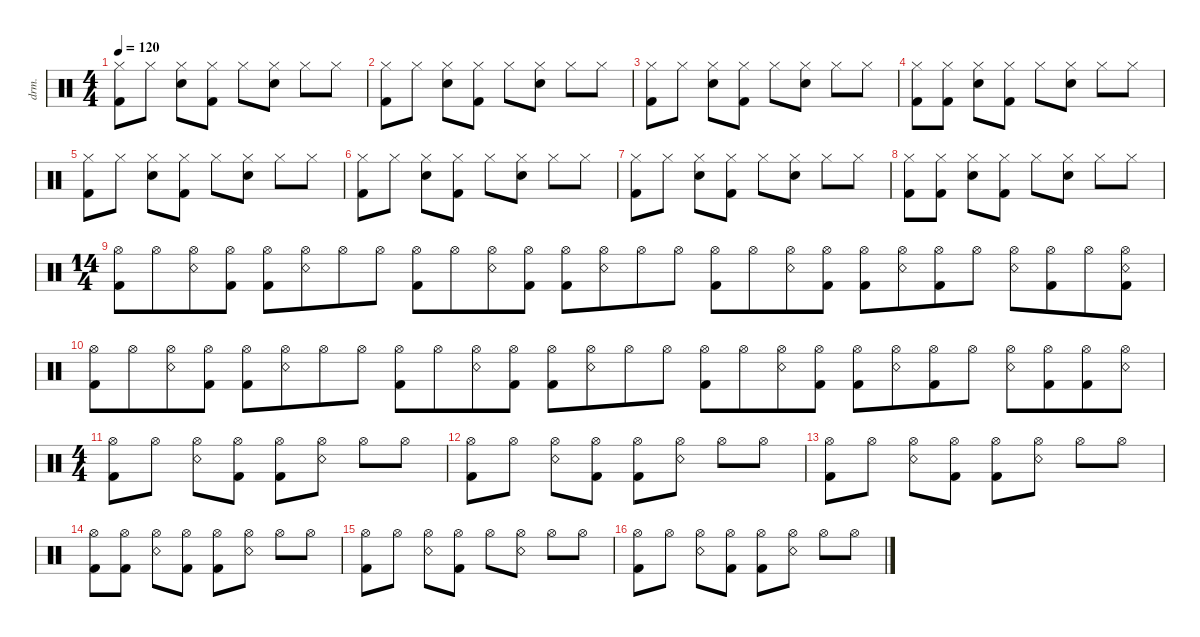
\defaultSystemsLayout 4
\hideDynamics
\bracketExtendMode nobrackets
\otherSystemsTrackNameOrientation horizontal
\track ("Drumkit" "drm.") {instrument percussion}
\staff {score}
\articulation defaults
\ts (4 4)
\tempo 120
\clef neutral
\ks c
("Hi-Hat (closed)" "Kick (hit) 2").8{dy mf beam Down} "Hi-Hat (closed)".8{beam Down} ("Hi-Hat (closed)" "Snare (hit) 2").8{beam Down} ("Hi-Hat (closed)" "Kick (hit) 2").8{beam Down} "Hi-Hat (closed)".8{beam Down} ("Hi-Hat (closed)" "Snare (hit) 2").8{beam Down} "Hi-Hat (closed)".8{beam Down} "Hi-Hat (closed)".8{beam Down} |
("Hi-Hat (closed)" "Kick (hit) 2").8{beam Down} "Hi-Hat (closed)".8{beam Down} ("Hi-Hat (closed)" "Snare (hit) 2").8{beam Down} ("Hi-Hat (closed)" "Kick (hit) 2").8{beam Down} "Hi-Hat (closed)".8{beam Down} ("Hi-Hat (closed)" "Snare (hit) 2").8{beam Down} "Hi-Hat (closed)".8{beam Down} "Hi-Hat (closed)".8{beam Down} |
("Hi-Hat (closed)" "Kick (hit) 2").8{beam Down} "Hi-Hat (closed)".8{beam Down} ("Hi-Hat (closed)" "Snare (hit) 2").8{beam Down} ("Hi-Hat (closed)" "Kick (hit) 2").8{beam Down} "Hi-Hat (closed)".8{beam Down} ("Hi-Hat (closed)" "Snare (hit) 2").8{beam Down} "Hi-Hat (closed)".8{beam Down} "Hi-Hat (closed)".8{beam Down} |
("Hi-Hat (closed)" "Kick (hit) 2").8{beam Down} ("Hi-Hat (closed)" "Kick (hit) 2").8{beam Down} ("Hi-Hat (closed)" "Snare (hit) 2").8{beam Down} ("Hi-Hat (closed)" "Kick (hit) 2").8{beam Down} "Hi-Hat (closed)".8{beam Down} ("Hi-Hat (closed)" "Snare (hit) 2").8{beam Down} "Hi-Hat (closed)".8{beam Down} "Hi-Hat (closed)".8{beam Down} |
("Hi-Hat (closed)" "Kick (hit) 2").8{beam Down} "Hi-Hat (closed)".8{beam Down} ("Hi-Hat (closed)" "Snare (hit) 2").8{beam Down} ("Hi-Hat (closed)" "Kick (hit) 2").8{beam Down} "Hi-Hat (closed)".8{beam Down} ("Hi-Hat (closed)" "Snare (hit) 2").8{beam Down} "Hi-Hat (closed)".8{beam Down} "Hi-Hat (closed)".8{beam Down} |
("Hi-Hat (closed)" "Kick (hit) 2").8{beam Down} "Hi-Hat (closed)".8{beam Down} ("Hi-Hat (closed)" "Snare (hit) 2").8{beam Down} ("Hi-Hat (closed)" "Kick (hit) 2").8{beam Down} "Hi-Hat (closed)".8{beam Down} ("Hi-Hat (closed)" "Snare (hit) 2").8{beam Down} "Hi-Hat (closed)".8{beam Down} "Hi-Hat (closed)".8{beam Down} |
("Hi-Hat (closed)" "Kick (hit) 2").8{beam Down} "Hi-Hat (closed)".8{beam Down} ("Hi-Hat (closed)" "Snare (hit) 2").8{beam Down} ("Hi-Hat (closed)" "Kick (hit) 2").8{beam Down} "Hi-Hat (closed)".8{beam Down} ("Hi-Hat (closed)" "Snare (hit) 2").8{beam Down} "Hi-Hat (closed)".8{beam Down} "Hi-Hat (closed)".8{beam Down} |
("Hi-Hat (closed)" "Kick (hit) 2").8{beam Down} ("Hi-Hat (closed)" "Kick (hit) 2").8{beam Down} ("Hi-Hat (closed)" "Snare (hit) 2").8{beam Down} ("Hi-Hat (closed)" "Kick (hit) 2").8{beam Down} "Hi-Hat (closed)".8{beam Down} ("Hi-Hat (closed)" "Snare (hit) 2").8{beam Down} "Hi-Hat (closed)".8{beam Down} "Hi-Hat (closed)".8{beam Down} |
\ts (14 4)
\beaming (8 4 4 4 4 4 4 4)
("Kick (hit) 2" "Hi-Hat (open)").8{beam Down} "Hi-Hat (open)".8{beam Down} ("Hi-Hat (open)" "Snare (rim shot)").8{beam Down} ("Hi-Hat (open)" "Kick (hit) 2").8{beam Down} ("Hi-Hat (open)" "Kick (hit) 2").8{beam Down} ("Hi-Hat (open)" "Snare (rim shot)").8{beam Down} "Hi-Hat (open)".8{beam Down} "Hi-Hat (open)".8{beam Down} ("Kick (hit) 2" "Hi-Hat (open)").8{beam Down} "Hi-Hat (open)".8{beam Down} ("Hi-Hat (open)" "Snare (rim shot)").8{beam Down} ("Hi-Hat (open)" "Kick (hit) 2").8{beam Down} ("Hi-Hat (open)" "Kick (hit) 2").8{beam Down} ("Hi-Hat (open)" "Snare (rim shot)").8{beam Down} "Hi-Hat (open)".8{beam Down} "Hi-Hat (open)".8{beam Down} ("Kick (hit) 2" "Hi-Hat (open)").8{beam Down} "Hi-Hat (open)".8{beam Down} ("Hi-Hat (open)" "Snare (rim shot)").8{beam Down} ("Hi-Hat (open)" "Kick (hit) 2").8{beam Down} ("Hi-Hat (open)" "Kick (hit) 2").8{beam Down} ("Hi-Hat (open)" "Snare (rim shot)").8{beam Down} ("Hi-Hat (open)" "Kick (hit) 2").8{beam Down} "Hi-Hat (open)".8{beam Down} ("Hi-Hat (open)" "Snare (rim shot)").8{beam Down} ("Hi-Hat (open)" "Kick (hit) 2").8{beam Down} "Hi-Hat (open)".8{beam Down} ("Hi-Hat (open)" "Kick (hit) 2" "Snare (rim shot)").8{beam Down} |
("Kick (hit) 2" "Hi-Hat (open)").8{beam Down} "Hi-Hat (open)".8{beam Down} ("Hi-Hat (open)" "Snare (rim shot)").8{beam Down} ("Hi-Hat (open)" "Kick (hit) 2").8{beam Down} ("Hi-Hat (open)" "Kick (hit) 2").8{beam Down} ("Hi-Hat (open)" "Snare (rim shot)").8{beam Down} "Hi-Hat (open)".8{beam Down} "Hi-Hat (open)".8{beam Down} ("Kick (hit) 2" "Hi-Hat (open)").8{beam Down} "Hi-Hat (open)".8{beam Down} ("Hi-Hat (open)" "Snare (rim shot)").8{beam Down} ("Hi-Hat (open)" "Kick (hit) 2").8{beam Down} ("Hi-Hat (open)" "Kick (hit) 2").8{beam Down} ("Hi-Hat (open)" "Snare (rim shot)").8{beam Down} "Hi-Hat (open)".8{beam Down} "Hi-Hat (open)".8{beam Down} ("Kick (hit) 2" "Hi-Hat (open)").8{beam Down} "Hi-Hat (open)".8{beam Down} ("Hi-Hat (open)" "Snare (rim shot)").8{beam Down} ("Hi-Hat (open)" "Kick (hit) 2").8{beam Down} ("Hi-Hat (open)" "Kick (hit) 2").8{beam Down} ("Hi-Hat (open)" "Snare (rim shot)").8{beam Down} ("Hi-Hat (open)" "Kick (hit) 2").8{beam Down} "Hi-Hat (open)".8{beam Down} ("Hi-Hat (open)" "Snare (rim shot)").8{beam Down} ("Hi-Hat (open)" "Kick (hit) 2").8{beam Down} ("Hi-Hat (open)" "Kick (hit) 2").8{beam Down} ("Hi-Hat (open)" "Snare (rim shot)").8{beam Down} |
\ts (4 4)
\beaming (8 2 2 2 2)
("Kick (hit) 2" "Hi-Hat (open)").8{beam Down} "Hi-Hat (open)".8{beam Down} ("Hi-Hat (open)" "Snare (rim shot)").8{beam Down} ("Hi-Hat (open)" "Kick (hit) 2").8{beam Down} ("Hi-Hat (open)" "Kick (hit) 2").8{beam Down} ("Hi-Hat (open)" "Snare (rim shot)").8{beam Down} "Hi-Hat (open)".8{beam Down} "Hi-Hat (open)".8{beam Down} |
("Kick (hit) 2" "Hi-Hat (open)").8{beam Down} "Hi-Hat (open)".8{beam Down} ("Hi-Hat (open)" "Snare (rim shot)").8{beam Down} ("Hi-Hat (open)" "Kick (hit) 2").8{beam Down} ("Hi-Hat (open)" "Kick (hit) 2").8{beam Down} ("Hi-Hat (open)" "Snare (rim shot)").8{beam Down} "Hi-Hat (open)".8{beam Down} "Hi-Hat (open)".8{beam Down} |
("Kick (hit) 2" "Hi-Hat (open)").8{beam Down} "Hi-Hat (open)".8{beam Down} ("Hi-Hat (open)" "Snare (rim shot)").8{beam Down} ("Hi-Hat (open)" "Kick (hit) 2").8{beam Down} ("Hi-Hat (open)" "Kick (hit) 2").8{beam Down} ("Hi-Hat (open)" "Snare (rim shot)").8{beam Down} "Hi-Hat (open)".8{beam Down} "Hi-Hat (open)".8{beam Down} |
("Kick (hit) 2" "Hi-Hat (open)").8{beam Down} ("Hi-Hat (open)" "Kick (hit) 2").8{beam Down} ("Hi-Hat (open)" "Snare (rim shot)").8{beam Down} ("Hi-Hat (open)" "Kick (hit) 2").8{beam Down} ("Hi-Hat (open)" "Kick (hit) 2").8{beam Down} ("Hi-Hat (open)" "Snare (rim shot)").8{beam Down} "Hi-Hat (open)".8{beam Down} "Hi-Hat (open)".8{beam Down} |
("Kick (hit) 2" "Hi-Hat (open)").8{beam Down} "Hi-Hat (open)".8{beam Down} ("Hi-Hat (open)" "Snare (rim shot)").8{beam Down} ("Hi-Hat (open)" "Kick (hit) 2").8{beam Down} "Hi-Hat (open)".8{beam Down} ("Hi-Hat (open)" "Snare (rim shot)").8{beam Down} "Hi-Hat (open)".8{beam Down} "Hi-Hat (open)".8{beam Down} |
("Kick (hit) 2" "Hi-Hat (open)").8{beam Down} "Hi-Hat (open)".8{beam Down} ("Hi-Hat (open)" "Snare (rim shot)").8{beam Down} ("Hi-Hat (open)" "Kick (hit) 2").8{beam Down} ("Hi-Hat (open)" "Kick (hit) 2").8{beam Down} ("Hi-Hat (open)" "Snare (rim shot)").8{beam Down} "Hi-Hat (open)".8{beam Down} "Hi-Hat (open)".8{beam Down}
